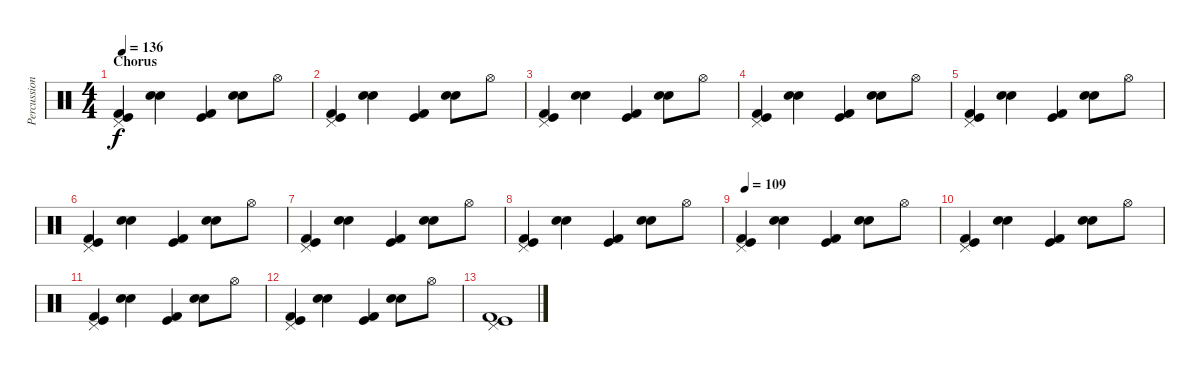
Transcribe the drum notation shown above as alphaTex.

\track ("Percussion" "Percussion") {instrument percussion}
\staff {score}
\articulation defaults
\ts (4 4)
\section ("" "Chorus")
\tempo 136
\clef neutral
\ks c
("Pedal Hi-Hat (hit)" "Kick (hit)" "Kick (hit) 2").4{dy f} ("Snare (hit) 2" "Electric Snare (hit)").4 ("Kick (hit)" "Kick (hit) 2").4 ("Snare (hit) 2" "Electric Snare (hit)").8 "Hi-Hat (open)".8 |
("Pedal Hi-Hat (hit)" "Kick (hit)" "Kick (hit) 2").4 ("Snare (hit) 2" "Electric Snare (hit)").4 ("Kick (hit)" "Kick (hit) 2").4 ("Snare (hit) 2" "Electric Snare (hit)").8 "Hi-Hat (open)".8 |
("Pedal Hi-Hat (hit)" "Kick (hit)" "Kick (hit) 2").4 ("Snare (hit) 2" "Electric Snare (hit)").4 ("Kick (hit)" "Kick (hit) 2").4 ("Snare (hit) 2" "Electric Snare (hit)").8 "Hi-Hat (open)".8 |
("Pedal Hi-Hat (hit)" "Kick (hit)" "Kick (hit) 2").4 ("Snare (hit) 2" "Electric Snare (hit)").4 ("Kick (hit)" "Kick (hit) 2").4 ("Snare (hit) 2" "Electric Snare (hit)").8 "Hi-Hat (open)".8 |
("Pedal Hi-Hat (hit)" "Kick (hit)" "Kick (hit) 2").4 ("Snare (hit) 2" "Electric Snare (hit)").4 ("Kick (hit)" "Kick (hit) 2").4 ("Snare (hit) 2" "Electric Snare (hit)").8 "Hi-Hat (open)".8 |
("Pedal Hi-Hat (hit)" "Kick (hit)" "Kick (hit) 2").4 ("Snare (hit) 2" "Electric Snare (hit)").4 ("Kick (hit)" "Kick (hit) 2").4 ("Snare (hit) 2" "Electric Snare (hit)").8 "Hi-Hat (open)".8 |
("Pedal Hi-Hat (hit)" "Kick (hit)" "Kick (hit) 2").4 ("Snare (hit) 2" "Electric Snare (hit)").4 ("Kick (hit)" "Kick (hit) 2").4 ("Snare (hit) 2" "Electric Snare (hit)").8 "Hi-Hat (open)".8 |
("Pedal Hi-Hat (hit)" "Kick (hit)" "Kick (hit) 2").4 ("Snare (hit) 2" "Electric Snare (hit)").4 ("Kick (hit)" "Kick (hit) 2").4 ("Snare (hit) 2" "Electric Snare (hit)").8 "Hi-Hat (open)".8 |
\tempo 109
("Pedal Hi-Hat (hit)" "Kick (hit)" "Kick (hit) 2").4 ("Snare (hit) 2" "Electric Snare (hit)").4 ("Kick (hit)" "Kick (hit) 2").4 ("Snare (hit) 2" "Electric Snare (hit)").8 "Hi-Hat (open)".8 |
("Pedal Hi-Hat (hit)" "Kick (hit)" "Kick (hit) 2").4 ("Snare (hit) 2" "Electric Snare (hit)").4 ("Kick (hit)" "Kick (hit) 2").4 ("Snare (hit) 2" "Electric Snare (hit)").8 "Hi-Hat (open)".8 |
("Pedal Hi-Hat (hit)" "Kick (hit)" "Kick (hit) 2").4 ("Snare (hit) 2" "Electric Snare (hit)").4 ("Kick (hit)" "Kick (hit) 2").4 ("Snare (hit) 2" "Electric Snare (hit)").8 "Hi-Hat (open)".8 |
("Pedal Hi-Hat (hit)" "Kick (hit)" "Kick (hit) 2").4 ("Snare (hit) 2" "Electric Snare (hit)").4 ("Kick (hit)" "Kick (hit) 2").4 ("Snare (hit) 2" "Electric Snare (hit)").8 "Hi-Hat (open)".8 |
("Pedal Hi-Hat (hit)" "Kick (hit)" "Kick (hit) 2").1
